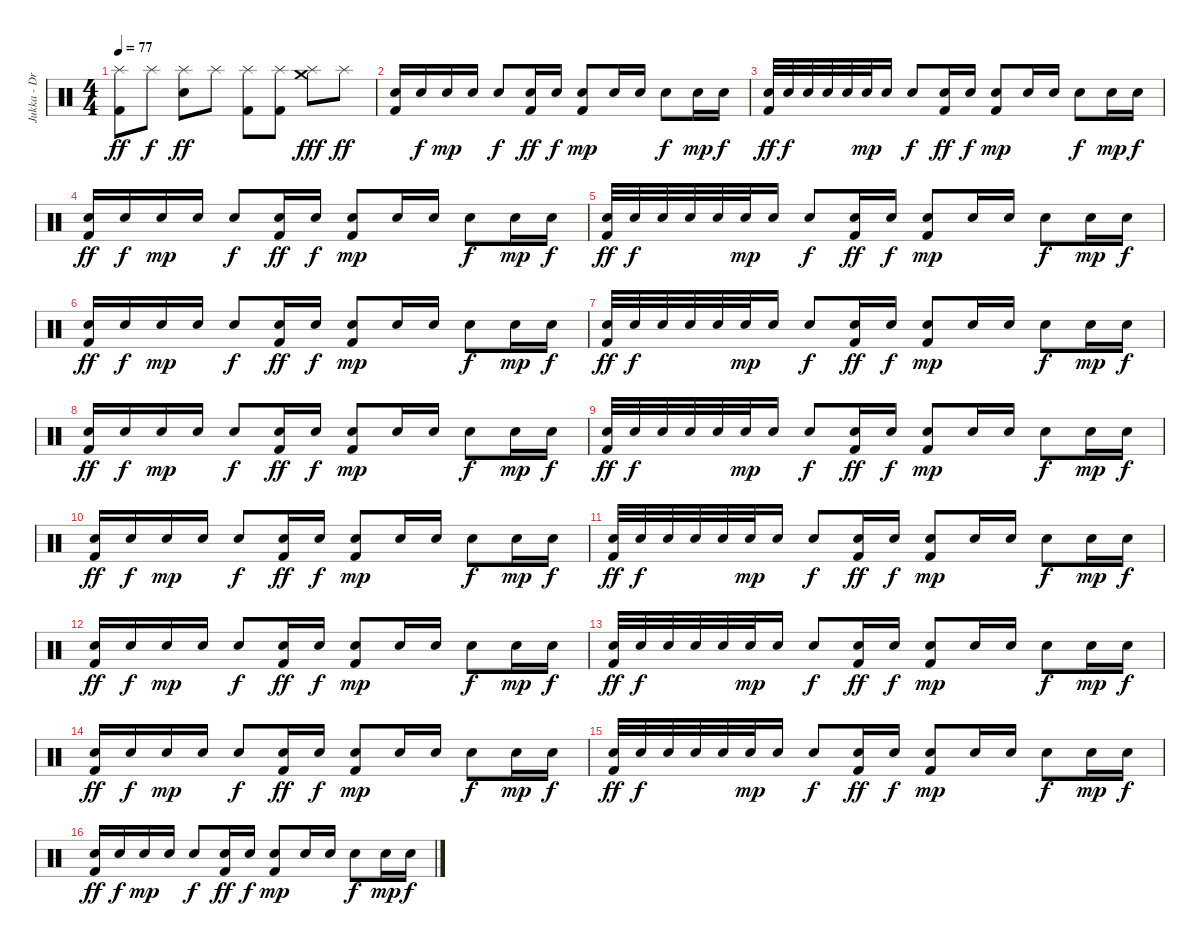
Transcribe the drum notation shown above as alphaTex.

\track ("Jukka - Drums" "Jukka - Dr") {instrument percussion}
\staff {score}
\articulation defaults
\ts (4 4)
\tempo 77
\clef neutral
\ks c
("Splash (hit)" "Kick (hit) 2").8{dy ff} "Splash (hit)".8{dy f} ("Splash (hit)" "Electric Snare (hit)").8{dy ff} "Splash (hit)".8 ("Splash (hit)" "Kick (hit) 2").8 ("Splash (hit)" "Kick (hit) 2").8 ("Crash medium (hit)" "Splash (hit)").8{dy fff} "Splash (hit)".8{dy ff} |
("Electric Snare (hit)" "Kick (hit) 2").16 "Electric Snare (hit)".16{dy f} "Electric Snare (hit)".16{dy mp} "Electric Snare (hit)".16 "Electric Snare (hit)".8{dy f} ("Electric Snare (hit)" "Kick (hit) 2").16{dy ff} "Electric Snare (hit)".16{dy f} ("Electric Snare (hit)" "Kick (hit) 2").8{dy mp} "Electric Snare (hit)".16 "Electric Snare (hit)".16 "Electric Snare (hit)".8{dy f} "Electric Snare (hit)".16{dy mp} "Electric Snare (hit)".16{dy f} |
("Electric Snare (hit)" "Kick (hit) 2").32{dy ff} "Electric Snare (hit)".32{dy f} "Electric Snare (hit)".32 "Electric Snare (hit)".32 "Electric Snare (hit)".32 "Electric Snare (hit)".32{dy mp} "Electric Snare (hit)".16 "Electric Snare (hit)".8{dy f} ("Electric Snare (hit)" "Kick (hit) 2").16{dy ff} "Electric Snare (hit)".16{dy f} ("Electric Snare (hit)" "Kick (hit) 2").8{dy mp} "Electric Snare (hit)".16 "Electric Snare (hit)".16 "Electric Snare (hit)".8{dy f} "Electric Snare (hit)".16{dy mp} "Electric Snare (hit)".16{dy f} |
("Electric Snare (hit)" "Kick (hit) 2").16{dy ff} "Electric Snare (hit)".16{dy f} "Electric Snare (hit)".16{dy mp} "Electric Snare (hit)".16 "Electric Snare (hit)".8{dy f} ("Electric Snare (hit)" "Kick (hit) 2").16{dy ff} "Electric Snare (hit)".16{dy f} ("Electric Snare (hit)" "Kick (hit) 2").8{dy mp} "Electric Snare (hit)".16 "Electric Snare (hit)".16 "Electric Snare (hit)".8{dy f} "Electric Snare (hit)".16{dy mp} "Electric Snare (hit)".16{dy f} |
("Electric Snare (hit)" "Kick (hit) 2").32{dy ff} "Electric Snare (hit)".32{dy f} "Electric Snare (hit)".32 "Electric Snare (hit)".32 "Electric Snare (hit)".32 "Electric Snare (hit)".32{dy mp} "Electric Snare (hit)".16 "Electric Snare (hit)".8{dy f} ("Electric Snare (hit)" "Kick (hit) 2").16{dy ff} "Electric Snare (hit)".16{dy f} ("Electric Snare (hit)" "Kick (hit) 2").8{dy mp} "Electric Snare (hit)".16 "Electric Snare (hit)".16 "Electric Snare (hit)".8{dy f} "Electric Snare (hit)".16{dy mp} "Electric Snare (hit)".16{dy f} |
("Electric Snare (hit)" "Kick (hit) 2").16{dy ff} "Electric Snare (hit)".16{dy f} "Electric Snare (hit)".16{dy mp} "Electric Snare (hit)".16 "Electric Snare (hit)".8{dy f} ("Electric Snare (hit)" "Kick (hit) 2").16{dy ff} "Electric Snare (hit)".16{dy f} ("Electric Snare (hit)" "Kick (hit) 2").8{dy mp} "Electric Snare (hit)".16 "Electric Snare (hit)".16 "Electric Snare (hit)".8{dy f} "Electric Snare (hit)".16{dy mp} "Electric Snare (hit)".16{dy f} |
("Electric Snare (hit)" "Kick (hit) 2").32{dy ff} "Electric Snare (hit)".32{dy f} "Electric Snare (hit)".32 "Electric Snare (hit)".32 "Electric Snare (hit)".32 "Electric Snare (hit)".32{dy mp} "Electric Snare (hit)".16 "Electric Snare (hit)".8{dy f} ("Electric Snare (hit)" "Kick (hit) 2").16{dy ff} "Electric Snare (hit)".16{dy f} ("Electric Snare (hit)" "Kick (hit) 2").8{dy mp} "Electric Snare (hit)".16 "Electric Snare (hit)".16 "Electric Snare (hit)".8{dy f} "Electric Snare (hit)".16{dy mp} "Electric Snare (hit)".16{dy f} |
("Electric Snare (hit)" "Kick (hit) 2").16{dy ff} "Electric Snare (hit)".16{dy f} "Electric Snare (hit)".16{dy mp} "Electric Snare (hit)".16 "Electric Snare (hit)".8{dy f} ("Electric Snare (hit)" "Kick (hit) 2").16{dy ff} "Electric Snare (hit)".16{dy f} ("Electric Snare (hit)" "Kick (hit) 2").8{dy mp} "Electric Snare (hit)".16 "Electric Snare (hit)".16 "Electric Snare (hit)".8{dy f} "Electric Snare (hit)".16{dy mp} "Electric Snare (hit)".16{dy f} |
("Electric Snare (hit)" "Kick (hit) 2").32{dy ff} "Electric Snare (hit)".32{dy f} "Electric Snare (hit)".32 "Electric Snare (hit)".32 "Electric Snare (hit)".32 "Electric Snare (hit)".32{dy mp} "Electric Snare (hit)".16 "Electric Snare (hit)".8{dy f} ("Electric Snare (hit)" "Kick (hit) 2").16{dy ff} "Electric Snare (hit)".16{dy f} ("Electric Snare (hit)" "Kick (hit) 2").8{dy mp} "Electric Snare (hit)".16 "Electric Snare (hit)".16 "Electric Snare (hit)".8{dy f} "Electric Snare (hit)".16{dy mp} "Electric Snare (hit)".16{dy f} |
("Electric Snare (hit)" "Kick (hit) 2").16{dy ff} "Electric Snare (hit)".16{dy f} "Electric Snare (hit)".16{dy mp} "Electric Snare (hit)".16 "Electric Snare (hit)".8{dy f} ("Electric Snare (hit)" "Kick (hit) 2").16{dy ff} "Electric Snare (hit)".16{dy f} ("Electric Snare (hit)" "Kick (hit) 2").8{dy mp} "Electric Snare (hit)".16 "Electric Snare (hit)".16 "Electric Snare (hit)".8{dy f} "Electric Snare (hit)".16{dy mp} "Electric Snare (hit)".16{dy f} |
("Electric Snare (hit)" "Kick (hit) 2").32{dy ff} "Electric Snare (hit)".32{dy f} "Electric Snare (hit)".32 "Electric Snare (hit)".32 "Electric Snare (hit)".32 "Electric Snare (hit)".32{dy mp} "Electric Snare (hit)".16 "Electric Snare (hit)".8{dy f} ("Electric Snare (hit)" "Kick (hit) 2").16{dy ff} "Electric Snare (hit)".16{dy f} ("Electric Snare (hit)" "Kick (hit) 2").8{dy mp} "Electric Snare (hit)".16 "Electric Snare (hit)".16 "Electric Snare (hit)".8{dy f} "Electric Snare (hit)".16{dy mp} "Electric Snare (hit)".16{dy f} |
("Electric Snare (hit)" "Kick (hit) 2").16{dy ff} "Electric Snare (hit)".16{dy f} "Electric Snare (hit)".16{dy mp} "Electric Snare (hit)".16 "Electric Snare (hit)".8{dy f} ("Electric Snare (hit)" "Kick (hit) 2").16{dy ff} "Electric Snare (hit)".16{dy f} ("Electric Snare (hit)" "Kick (hit) 2").8{dy mp} "Electric Snare (hit)".16 "Electric Snare (hit)".16 "Electric Snare (hit)".8{dy f} "Electric Snare (hit)".16{dy mp} "Electric Snare (hit)".16{dy f} |
("Electric Snare (hit)" "Kick (hit) 2").32{dy ff} "Electric Snare (hit)".32{dy f} "Electric Snare (hit)".32 "Electric Snare (hit)".32 "Electric Snare (hit)".32 "Electric Snare (hit)".32{dy mp} "Electric Snare (hit)".16 "Electric Snare (hit)".8{dy f} ("Electric Snare (hit)" "Kick (hit) 2").16{dy ff} "Electric Snare (hit)".16{dy f} ("Electric Snare (hit)" "Kick (hit) 2").8{dy mp} "Electric Snare (hit)".16 "Electric Snare (hit)".16 "Electric Snare (hit)".8{dy f} "Electric Snare (hit)".16{dy mp} "Electric Snare (hit)".16{dy f} |
("Electric Snare (hit)" "Kick (hit) 2").16{dy ff} "Electric Snare (hit)".16{dy f} "Electric Snare (hit)".16{dy mp} "Electric Snare (hit)".16 "Electric Snare (hit)".8{dy f} ("Electric Snare (hit)" "Kick (hit) 2").16{dy ff} "Electric Snare (hit)".16{dy f} ("Electric Snare (hit)" "Kick (hit) 2").8{dy mp} "Electric Snare (hit)".16 "Electric Snare (hit)".16 "Electric Snare (hit)".8{dy f} "Electric Snare (hit)".16{dy mp} "Electric Snare (hit)".16{dy f} |
("Electric Snare (hit)" "Kick (hit) 2").32{dy ff} "Electric Snare (hit)".32{dy f} "Electric Snare (hit)".32 "Electric Snare (hit)".32 "Electric Snare (hit)".32 "Electric Snare (hit)".32{dy mp} "Electric Snare (hit)".16 "Electric Snare (hit)".8{dy f} ("Electric Snare (hit)" "Kick (hit) 2").16{dy ff} "Electric Snare (hit)".16{dy f} ("Electric Snare (hit)" "Kick (hit) 2").8{dy mp} "Electric Snare (hit)".16 "Electric Snare (hit)".16 "Electric Snare (hit)".8{dy f} "Electric Snare (hit)".16{dy mp} "Electric Snare (hit)".16{dy f} |
("Electric Snare (hit)" "Kick (hit) 2").16{dy ff} "Electric Snare (hit)".16{dy f} "Electric Snare (hit)".16{dy mp} "Electric Snare (hit)".16 "Electric Snare (hit)".8{dy f} ("Electric Snare (hit)" "Kick (hit) 2").16{dy ff} "Electric Snare (hit)".16{dy f} ("Electric Snare (hit)" "Kick (hit) 2").8{dy mp} "Electric Snare (hit)".16 "Electric Snare (hit)".16 "Electric Snare (hit)".8{dy f} "Electric Snare (hit)".16{dy mp} "Electric Snare (hit)".16{dy f}
